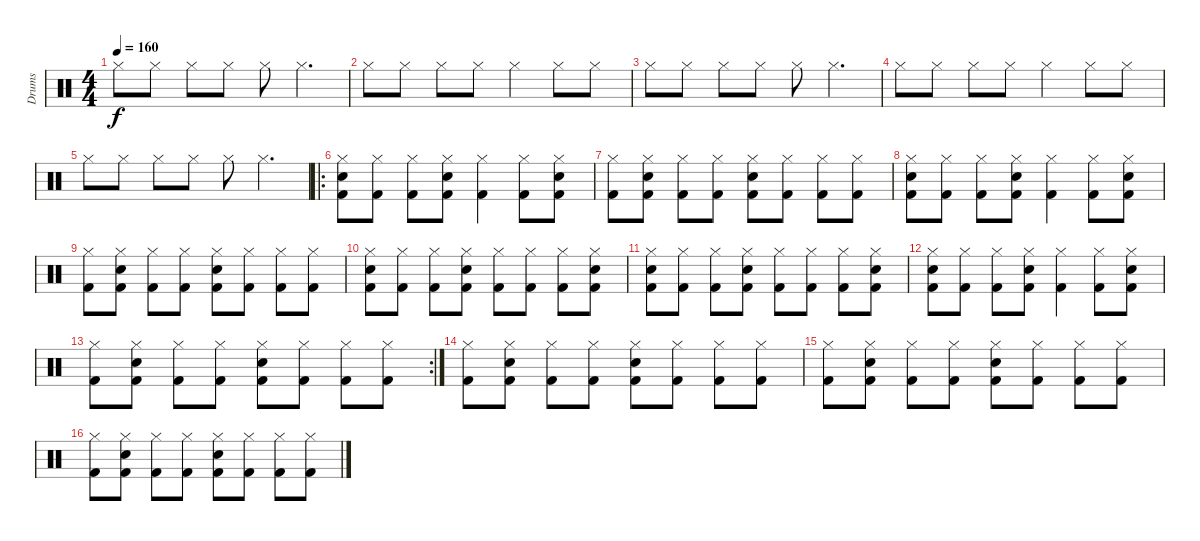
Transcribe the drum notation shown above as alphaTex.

\track ("Drums" "Drums") {instrument percussion}
\staff {score}
\articulation defaults
\ts (4 4)
\tempo 160
\clef neutral
\ks c "Hi-Hat (closed)".8{dy f} "Hi-Hat (closed)".8 "Hi-Hat (closed)".8 "Hi-Hat (closed)".8 "Hi-Hat (closed)".8 "Hi-Hat (closed)".4{d}
|
"Hi-Hat (closed)".8 "Hi-Hat (closed)".8 "Hi-Hat (closed)".8 "Hi-Hat (closed)".8 "Hi-Hat (closed)".4 "Hi-Hat (closed)".8 "Hi-Hat (closed)".8 |
"Hi-Hat (closed)".8 "Hi-Hat (closed)".8 "Hi-Hat (closed)".8 "Hi-Hat (closed)".8 "Hi-Hat (closed)".8 "Hi-Hat (closed)".4{d} |
"Hi-Hat (closed)".8 "Hi-Hat (closed)".8 "Hi-Hat (closed)".8 "Hi-Hat (closed)".8 "Hi-Hat (closed)".4 "Hi-Hat (closed)".8 "Hi-Hat (closed)".8 |
"Hi-Hat (closed)".8 "Hi-Hat (closed)".8 "Hi-Hat (closed)".8 "Hi-Hat (closed)".8 "Hi-Hat (closed)".8 "Hi-Hat (closed)".4{d} |
\ro
("Kick (hit) 2" "Hi-Hat (closed)" "Snare (hit) 2").8 ("Kick (hit) 2" "Hi-Hat (closed)").8 ("Kick (hit) 2" "Hi-Hat (closed)").8 ("Kick (hit) 2" "Hi-Hat (closed)" "Snare (hit) 2").8 ("Kick (hit) 2" "Hi-Hat (closed)").4 ("Kick (hit) 2" "Hi-Hat (closed)").8 ("Kick (hit) 2" "Hi-Hat (closed)" "Snare (hit) 2").8 |
("Kick (hit) 2" "Hi-Hat (closed)").8 ("Kick (hit) 2" "Hi-Hat (closed)" "Snare (hit) 2").8 ("Kick (hit) 2" "Hi-Hat (closed)").8 ("Kick (hit) 2" "Hi-Hat (closed)").8 ("Kick (hit) 2" "Hi-Hat (closed)" "Snare (hit) 2").8 ("Kick (hit) 2" "Hi-Hat (closed)").8 ("Kick (hit) 2" "Hi-Hat (closed)").8 ("Kick (hit) 2" "Hi-Hat (closed)").8 |
("Kick (hit) 2" "Hi-Hat (closed)" "Snare (hit) 2").8 ("Kick (hit) 2" "Hi-Hat (closed)").8 ("Kick (hit) 2" "Hi-Hat (closed)").8 ("Kick (hit) 2" "Hi-Hat (closed)" "Snare (hit) 2").8 ("Kick (hit) 2" "Hi-Hat (closed)").4 ("Kick (hit) 2" "Hi-Hat (closed)").8 ("Kick (hit) 2" "Hi-Hat (closed)" "Snare (hit) 2").8 |
("Kick (hit) 2" "Hi-Hat (closed)").8 ("Kick (hit) 2" "Hi-Hat (closed)" "Snare (hit) 2").8 ("Kick (hit) 2" "Hi-Hat (closed)").8 ("Kick (hit) 2" "Hi-Hat (closed)").8 ("Kick (hit) 2" "Hi-Hat (closed)" "Snare (hit) 2").8 ("Kick (hit) 2" "Hi-Hat (closed)").8 ("Kick (hit) 2" "Hi-Hat (closed)").8 ("Kick (hit) 2" "Hi-Hat (closed)").8 |
("Kick (hit) 2" "Hi-Hat (closed)" "Snare (hit) 2").8 ("Kick (hit) 2" "Hi-Hat (closed)").8 ("Kick (hit) 2" "Hi-Hat (closed)").8 ("Kick (hit) 2" "Hi-Hat (closed)" "Snare (hit) 2").8 ("Kick (hit) 2" "Hi-Hat (closed)").8 ("Kick (hit) 2" "Hi-Hat (closed)").8 ("Kick (hit) 2" "Hi-Hat (closed)").8 ("Kick (hit) 2" "Hi-Hat (closed)" "Snare (hit) 2").8 |
("Kick (hit) 2" "Hi-Hat (closed)" "Snare (hit) 2").8 ("Kick (hit) 2" "Hi-Hat (closed)").8 ("Kick (hit) 2" "Hi-Hat (closed)").8 ("Kick (hit) 2" "Hi-Hat (closed)" "Snare (hit) 2").8 ("Kick (hit) 2" "Hi-Hat (closed)").8 ("Kick (hit) 2" "Hi-Hat (closed)").8 ("Kick (hit) 2" "Hi-Hat (closed)").8 ("Kick (hit) 2" "Hi-Hat (closed)" "Snare (hit) 2").8 |
("Kick (hit) 2" "Hi-Hat (closed)" "Snare (hit) 2").8 ("Kick (hit) 2" "Hi-Hat (closed)").8 ("Kick (hit) 2" "Hi-Hat (closed)").8 ("Kick (hit) 2" "Hi-Hat (closed)" "Snare (hit) 2").8 ("Kick (hit) 2" "Hi-Hat (closed)").4 ("Kick (hit) 2" "Hi-Hat (closed)").8 ("Kick (hit) 2" "Hi-Hat (closed)" "Snare (hit) 2").8 |
\rc 2
("Kick (hit) 2" "Hi-Hat (closed)").8 ("Kick (hit) 2" "Hi-Hat (closed)" "Snare (hit) 2").8 ("Kick (hit) 2" "Hi-Hat (closed)").8 ("Kick (hit) 2" "Hi-Hat (closed)").8 ("Kick (hit) 2" "Hi-Hat (closed)" "Snare (hit) 2").8 ("Kick (hit) 2" "Hi-Hat (closed)").8 ("Kick (hit) 2" "Hi-Hat (closed)").8 ("Kick (hit) 2" "Hi-Hat (closed)").8 |
("Kick (hit) 2" "Hi-Hat (closed)").8 ("Kick (hit) 2" "Hi-Hat (closed)" "Snare (hit) 2").8 ("Kick (hit) 2" "Hi-Hat (closed)").8 ("Kick (hit) 2" "Hi-Hat (closed)").8 ("Kick (hit) 2" "Hi-Hat (closed)" "Snare (hit) 2").8 ("Kick (hit) 2" "Hi-Hat (closed)").8 ("Kick (hit) 2" "Hi-Hat (closed)").8 ("Kick (hit) 2" "Hi-Hat (closed)").8 |
("Kick (hit) 2" "Hi-Hat (closed)").8 ("Kick (hit) 2" "Hi-Hat (closed)" "Snare (hit) 2").8 ("Kick (hit) 2" "Hi-Hat (closed)").8 ("Kick (hit) 2" "Hi-Hat (closed)").8 ("Kick (hit) 2" "Hi-Hat (closed)" "Snare (hit) 2").8 ("Kick (hit) 2" "Hi-Hat (closed)").8 ("Kick (hit) 2" "Hi-Hat (closed)").8 ("Kick (hit) 2" "Hi-Hat (closed)").8 |
("Kick (hit) 2" "Hi-Hat (closed)").8 ("Kick (hit) 2" "Hi-Hat (closed)" "Snare (hit) 2").8 ("Kick (hit) 2" "Hi-Hat (closed)").8 ("Kick (hit) 2" "Hi-Hat (closed)").8 ("Kick (hit) 2" "Hi-Hat (closed)" "Snare (hit) 2").8 ("Kick (hit) 2" "Hi-Hat (closed)").8 ("Kick (hit) 2" "Hi-Hat (closed)").8 ("Kick (hit) 2" "Hi-Hat (closed)").8
